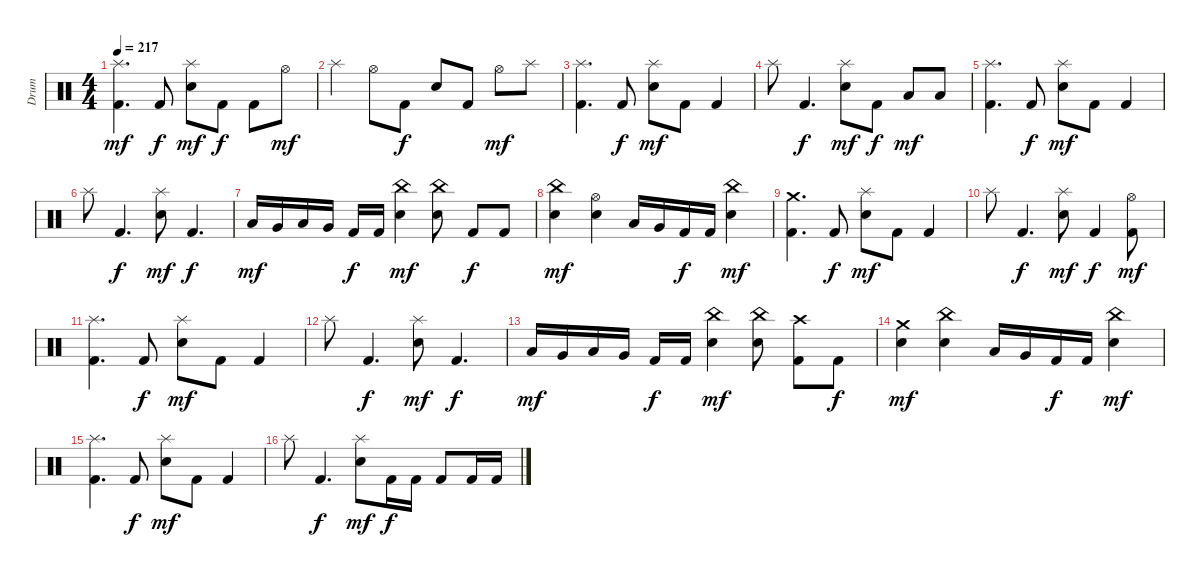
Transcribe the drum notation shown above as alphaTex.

\track ("Drum" "Drum") {instrument percussion}
\staff {score}
\articulation defaults
\ts (4 4)
\tempo 217
\clef neutral
\ks c
("Splash (hit)" "Kick (hit) 2").4{d dy mf} "Kick (hit) 2".8{dy f} ("Splash (hit)" "Electric Snare (hit)").8{dy mf} "Kick (hit) 2".8{dy f} "Kick (hit) 2".8 "Hi-Hat (open)".8{dy mf} |
"Splash (hit)".4 "Hi-Hat (open)".8 "Kick (hit) 2".8{dy f} "Electric Snare (hit)".8 "Kick (hit) 2".8 "Hi-Hat (open)".8{dy mf} "Splash (hit)".8 |
("Splash (hit)" "Kick (hit) 2").4{d} "Kick (hit) 2".8{dy f} ("Splash (hit)" "Electric Snare (hit)").8{dy mf} "Kick (hit) 2".8 "Kick (hit) 2".4 |
"Splash (hit)".8 "Kick (hit) 2".4{d dy f} ("Splash (hit)" "Electric Snare (hit)").8{dy mf} "Kick (hit) 2".8{dy f} "Low Tom (hit)".8{dy mf} "Low Tom (hit)".8 |
("Splash (hit)" "Kick (hit) 2").4{d} "Kick (hit) 2".8{dy f} ("Splash (hit)" "Electric Snare (hit)").8{dy mf} "Kick (hit) 2".8 "Kick (hit) 2".4 |
"Splash (hit)".8 "Kick (hit) 2".4{d dy f} ("Splash (hit)" "Electric Snare (hit)").8{dy mf} "Kick (hit) 2".4{d dy f} |
"Low Tom (hit)".16{dy mf} "Very Low Tom (hit)".16 "Low Tom (hit)".16 "Very Low Tom (hit)".16 "Kick (hit) 2".16{dy f} "Kick (hit) 2".16 ("China (hit)" "Electric Snare (hit)").4{dy mf} ("China (hit)" "Electric Snare (hit)").8 "Kick (hit) 2".8{dy f} "Kick (hit) 2".8 |
("China (hit)" "Electric Snare (hit)").4{dy mf} ("Hi-Hat (open)" "Electric Snare (hit)").4 "Low Tom (hit)".16 "Very Low Tom (hit)".16 "Kick (hit) 2".16{dy f} "Kick (hit) 2".16 ("China (hit)" "Electric Snare (hit)").4{dy mf} |
("Crash medium (hit)" "Kick (hit) 2").4{d} "Kick (hit) 2".8{dy f} ("Splash (hit)" "Electric Snare (hit)").8{dy mf} "Kick (hit) 2".8 "Kick (hit) 2".4 |
"Splash (hit)".8 "Kick (hit) 2".4{d dy f} ("Splash (hit)" "Electric Snare (hit)").8{dy mf} "Kick (hit) 2".4{dy f} ("Hi-Hat (open)" "Kick (hit) 2").8{dy mf} |
("Splash (hit)" "Kick (hit) 2").4{d} "Kick (hit) 2".8{dy f} ("Splash (hit)" "Electric Snare (hit)").8{dy mf} "Kick (hit) 2".8 "Kick (hit) 2".4 |
"Splash (hit)".8 "Kick (hit) 2".4{d dy f} ("Splash (hit)" "Electric Snare (hit)").8{dy mf} "Kick (hit) 2".4{d dy f} |
"Low Tom (hit)".16{dy mf} "Very Low Tom (hit)".16 "Low Tom (hit)".16 "Very Low Tom (hit)".16 "Kick (hit) 2".16{dy f} "Kick (hit) 2".16 ("China (hit)" "Electric Snare (hit)").4{dy mf} ("China (hit)" "Electric Snare (hit)").8 ("Crash high (hit)" "Kick (hit) 2").8 "Kick (hit) 2".8{dy f} |
("Crash medium (hit)" "Electric Snare (hit)").4{dy mf} ("China (hit)" "Electric Snare (hit)").4 "Low Tom (hit)".16 "Very Low Tom (hit)".16 "Kick (hit) 2".16{dy f} "Kick (hit) 2".16 ("China (hit)" "Electric Snare (hit)").4{dy mf} |
("Splash (hit)" "Kick (hit) 2").4{d} "Kick (hit) 2".8{dy f} ("Splash (hit)" "Electric Snare (hit)").8{dy mf} "Kick (hit) 2".8 "Kick (hit) 2".4 |
"Splash (hit)".8 "Kick (hit) 2".4{d dy f} ("Splash (hit)" "Electric Snare (hit)").8{dy mf} "Kick (hit) 2".16{dy f} "Kick (hit) 2".16 "Kick (hit) 2".8 "Kick (hit) 2".16 "Kick (hit) 2".16
